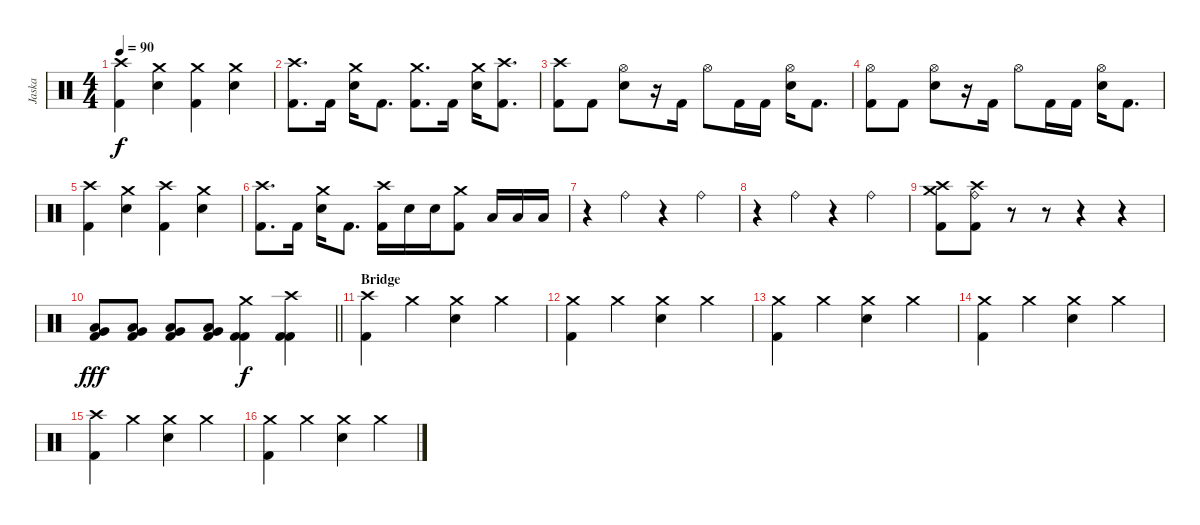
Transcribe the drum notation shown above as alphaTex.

\track ("Jaska" "Jaska") {instrument percussion}
\staff {score}
\articulation defaults
\ts (4 4)
\tempo 90
\clef neutral
\ks c
("Crash high (hit)" "Kick (hit) 2").4{dy f} ("Crash medium (hit)" "Snare (hit) 2").4 ("Crash medium (hit)" "Kick (hit) 2").4 ("Crash medium (hit)" "Snare (hit) 2").4 |
("Crash high (hit)" "Kick (hit) 2").8{d} "Kick (hit) 2".16 ("Crash medium (hit)" "Snare (hit) 2").16 "Kick (hit) 2".8{d} ("Crash medium (hit)" "Kick (hit) 2").8{d} "Kick (hit) 2".16 ("Crash medium (hit)" "Snare (hit) 2").16 ("Crash high (hit)" "Kick (hit) 2").8{d} |
("Crash high (hit)" "Kick (hit) 2").8 "Kick (hit) 2".8 ("Hi-Hat (open)" "Snare (hit) 2").8 r.16 "Kick (hit) 2".16 "Hi-Hat (open)".8 "Kick (hit) 2".16 "Kick (hit) 2".16 ("Hi-Hat (open)" "Snare (hit) 2").16 "Kick (hit) 2".8{d} |
("Hi-Hat (open)" "Kick (hit) 2").8 "Kick (hit) 2".8 ("Hi-Hat (open)" "Snare (hit) 2").8 r.16 "Kick (hit) 2".16 "Hi-Hat (open)".8 "Kick (hit) 2".16 "Kick (hit) 2".16 ("Hi-Hat (open)" "Snare (hit) 2").16 "Kick (hit) 2".8{d} |
("Crash high (hit)" "Kick (hit) 2").4 ("Crash medium (hit)" "Snare (hit) 2").4 ("Crash high (hit)" "Kick (hit) 2").4 ("Crash medium (hit)" "Snare (hit) 2").4 |
("Crash high (hit)" "Kick (hit) 2").8{d} "Kick (hit) 2".16 ("Crash medium (hit)" "Snare (hit) 2").16 "Kick (hit) 2".8{d} ("Crash high (hit)" "Kick (hit) 2").16 "Snare (hit) 2".16 "Snare (hit) 2".16 ("Crash medium (hit)" "Kick (hit) 2").8 "Low Tom (hit)".16 "Low Tom (hit)".16 "Low Tom (hit)".16 |
r.4 "Ride (bell)".4 r.4 "Ride (bell)".4 |
r.4 "Ride (bell)".4 r.4 "Ride (bell)".4 |
("Crash high (hit)" "Crash medium (hit)" "Kick (hit) 2").8 ("Crash high (hit)" "Ride (bell)" "Kick (hit) 2").8 r.8{volume 0} r.8 r.4 r.4 |
\barLineRight lightlight
("Very Low Tom (hit)" "Low Floor Tom (hit)" "Kick (hit) 2").8{dy fff volume 16} ("Very Low Tom (hit)" "Low Floor Tom (hit)" "Kick (hit) 2").8 ("Very Low Tom (hit)" "Low Floor Tom (hit)" "Kick (hit) 2").8 ("Very Low Tom (hit)" "Low Floor Tom (hit)" "Kick (hit) 2").8 ("Crash medium (hit)" "Kick (hit) 2" "Kick (hit) 2").4{dy f} ("Crash high (hit)" "Kick (hit) 2" "Kick (hit) 2").4 |
\section ("" "Bridge")
("Crash high (hit)" "Kick (hit) 2").4 "Crash medium (hit)".4 ("Crash medium (hit)" "Snare (hit) 2").4 "Crash medium (hit)".4 |
("Crash medium (hit)" "Kick (hit) 2").4 "Crash medium (hit)".4 ("Crash medium (hit)" "Snare (hit) 2").4 "Crash medium (hit)".4 |
("Crash medium (hit)" "Kick (hit) 2").4 "Crash medium (hit)".4 ("Crash medium (hit)" "Snare (hit) 2").4 "Crash medium (hit)".4 |
("Crash medium (hit)" "Kick (hit) 2").4 "Crash medium (hit)".4 ("Crash medium (hit)" "Snare (hit) 2").4 "Crash medium (hit)".4 |
("Crash high (hit)" "Kick (hit) 2").4 "Crash medium (hit)".4 ("Crash medium (hit)" "Snare (hit) 2").4 "Crash medium (hit)".4 |
("Crash medium (hit)" "Kick (hit) 2").4 "Crash medium (hit)".4 ("Crash medium (hit)" "Snare (hit) 2").4 "Crash medium (hit)".4
